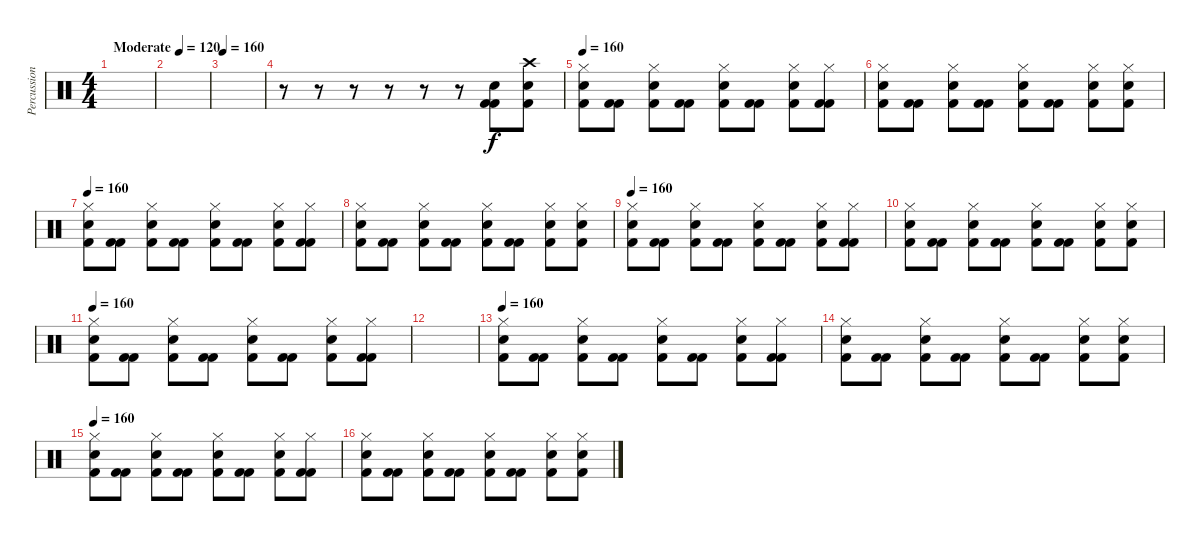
\track ("Percussion" "Percussion") {instrument percussion}
\staff {score}
\articulation defaults
\ts (4 4)
\tempo (120 "Moderate")
\tempo 160
\tempo (120 "Moderate")
\clef neutral
\ks c
|
|
\tempo 160
|
r.8 r.8 r.8 r.8 r.8 r.8 ("Electric Snare (hit)" "Kick (hit) 2" "Kick (hit) 2").8 ("Crash high (hit)" "Kick (hit) 2" "Electric Snare (hit)").8 |
\tempo 160
("Electric Snare (hit)" "Hi-Hat (closed)" "Kick (hit) 2").8 ("Kick (hit) 2" "Kick (hit) 2").8 ("Electric Snare (hit)" "Hi-Hat (closed)" "Kick (hit) 2").8 ("Kick (hit) 2" "Kick (hit) 2").8 ("Electric Snare (hit)" "Hi-Hat (closed)" "Kick (hit) 2").8 ("Kick (hit) 2" "Kick (hit) 2").8 ("Electric Snare (hit)" "Hi-Hat (closed)" "Kick (hit) 2").8 ("Kick (hit) 2" "Kick (hit) 2" "Hi-Hat (closed)").8 |
("Electric Snare (hit)" "Hi-Hat (closed)" "Kick (hit) 2").8 ("Kick (hit) 2" "Kick (hit) 2").8 ("Electric Snare (hit)" "Hi-Hat (closed)" "Kick (hit) 2").8 ("Kick (hit) 2" "Kick (hit) 2").8 ("Electric Snare (hit)" "Hi-Hat (closed)" "Kick (hit) 2").8 ("Kick (hit) 2" "Kick (hit) 2").8 ("Electric Snare (hit)" "Hi-Hat (closed)" "Kick (hit) 2").8 ("Electric Snare (hit)" "Hi-Hat (closed)" "Kick (hit) 2").8 |
\tempo 160
("Electric Snare (hit)" "Hi-Hat (closed)" "Kick (hit) 2").8 ("Kick (hit) 2" "Kick (hit) 2").8 ("Electric Snare (hit)" "Hi-Hat (closed)" "Kick (hit) 2").8 ("Kick (hit) 2" "Kick (hit) 2").8 ("Electric Snare (hit)" "Hi-Hat (closed)" "Kick (hit) 2").8 ("Kick (hit) 2" "Kick (hit) 2").8 ("Electric Snare (hit)" "Hi-Hat (closed)" "Kick (hit) 2").8 ("Kick (hit) 2" "Kick (hit) 2" "Hi-Hat (closed)").8 |
("Electric Snare (hit)" "Hi-Hat (closed)" "Kick (hit) 2").8 ("Kick (hit) 2" "Kick (hit) 2").8 ("Electric Snare (hit)" "Hi-Hat (closed)" "Kick (hit) 2").8 ("Kick (hit) 2" "Kick (hit) 2").8 ("Electric Snare (hit)" "Hi-Hat (closed)" "Kick (hit) 2").8 ("Kick (hit) 2" "Kick (hit) 2").8 ("Electric Snare (hit)" "Hi-Hat (closed)" "Kick (hit) 2").8 ("Electric Snare (hit)" "Hi-Hat (closed)" "Kick (hit) 2").8 |
\tempo 160
("Electric Snare (hit)" "Hi-Hat (closed)" "Kick (hit) 2").8 ("Kick (hit) 2" "Kick (hit) 2").8 ("Electric Snare (hit)" "Hi-Hat (closed)" "Kick (hit) 2").8 ("Kick (hit) 2" "Kick (hit) 2").8 ("Electric Snare (hit)" "Hi-Hat (closed)" "Kick (hit) 2").8 ("Kick (hit) 2" "Kick (hit) 2").8 ("Electric Snare (hit)" "Hi-Hat (closed)" "Kick (hit) 2").8 ("Kick (hit) 2" "Kick (hit) 2" "Hi-Hat (closed)").8 |
("Electric Snare (hit)" "Hi-Hat (closed)" "Kick (hit) 2").8 ("Kick (hit) 2" "Kick (hit) 2").8 ("Electric Snare (hit)" "Hi-Hat (closed)" "Kick (hit) 2").8 ("Kick (hit) 2" "Kick (hit) 2").8 ("Electric Snare (hit)" "Hi-Hat (closed)" "Kick (hit) 2").8 ("Kick (hit) 2" "Kick (hit) 2").8 ("Electric Snare (hit)" "Hi-Hat (closed)" "Kick (hit) 2").8 ("Electric Snare (hit)" "Hi-Hat (closed)" "Kick (hit) 2").8 |
\tempo 160
("Electric Snare (hit)" "Hi-Hat (closed)" "Kick (hit) 2").8 ("Kick (hit) 2" "Kick (hit) 2").8 ("Electric Snare (hit)" "Hi-Hat (closed)" "Kick (hit) 2").8 ("Kick (hit) 2" "Kick (hit) 2").8 ("Electric Snare (hit)" "Hi-Hat (closed)" "Kick (hit) 2").8 ("Kick (hit) 2" "Kick (hit) 2").8 ("Electric Snare (hit)" "Hi-Hat (closed)" "Kick (hit) 2").8 ("Kick (hit) 2" "Kick (hit) 2" "Hi-Hat (closed)").8 |
|
\tempo 160
("Electric Snare (hit)" "Hi-Hat (closed)" "Kick (hit) 2").8 ("Kick (hit) 2" "Kick (hit) 2").8 ("Electric Snare (hit)" "Hi-Hat (closed)" "Kick (hit) 2").8 ("Kick (hit) 2" "Kick (hit) 2").8 ("Electric Snare (hit)" "Hi-Hat (closed)" "Kick (hit) 2").8 ("Kick (hit) 2" "Kick (hit) 2").8 ("Electric Snare (hit)" "Hi-Hat (closed)" "Kick (hit) 2").8 ("Kick (hit) 2" "Kick (hit) 2" "Hi-Hat (closed)").8 |
("Electric Snare (hit)" "Hi-Hat (closed)" "Kick (hit) 2").8 ("Kick (hit) 2" "Kick (hit) 2").8 ("Electric Snare (hit)" "Hi-Hat (closed)" "Kick (hit) 2").8 ("Kick (hit) 2" "Kick (hit) 2").8 ("Electric Snare (hit)" "Hi-Hat (closed)" "Kick (hit) 2").8 ("Kick (hit) 2" "Kick (hit) 2").8 ("Electric Snare (hit)" "Hi-Hat (closed)" "Kick (hit) 2").8 ("Electric Snare (hit)" "Hi-Hat (closed)" "Kick (hit) 2").8 |
\tempo 160
("Electric Snare (hit)" "Hi-Hat (closed)" "Kick (hit) 2").8 ("Kick (hit) 2" "Kick (hit) 2").8 ("Electric Snare (hit)" "Hi-Hat (closed)" "Kick (hit) 2").8 ("Kick (hit) 2" "Kick (hit) 2").8 ("Electric Snare (hit)" "Hi-Hat (closed)" "Kick (hit) 2").8 ("Kick (hit) 2" "Kick (hit) 2").8 ("Electric Snare (hit)" "Hi-Hat (closed)" "Kick (hit) 2").8 ("Kick (hit) 2" "Kick (hit) 2" "Hi-Hat (closed)").8 |
("Electric Snare (hit)" "Hi-Hat (closed)" "Kick (hit) 2").8 ("Kick (hit) 2" "Kick (hit) 2").8 ("Electric Snare (hit)" "Hi-Hat (closed)" "Kick (hit) 2").8 ("Kick (hit) 2" "Kick (hit) 2").8 ("Electric Snare (hit)" "Hi-Hat (closed)" "Kick (hit) 2").8 ("Kick (hit) 2" "Kick (hit) 2").8 ("Electric Snare (hit)" "Hi-Hat (closed)" "Kick (hit) 2").8 ("Electric Snare (hit)" "Hi-Hat (closed)" "Kick (hit) 2").8
